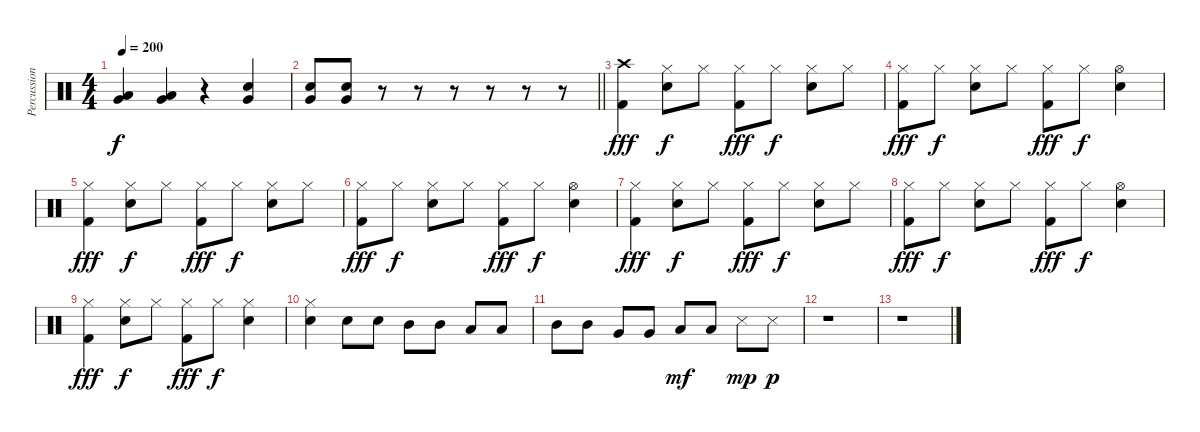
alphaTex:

\track ("Percussion" "Percussion") {instrument percussion}
\staff {score}
\articulation defaults
\ts (4 4)
\tempo 200
\clef neutral
\ks c
("Very Low Tom (hit)" "Low Tom (hit)").4{dy f} ("Very Low Tom (hit)" "Low Tom (hit)").4 r.4 ("Very Low Tom (hit)" "Electric Snare (hit)").4 |
\barLineRight lightlight
("Very Low Tom (hit)" "Electric Snare (hit)").8 ("Very Low Tom (hit)" "Electric Snare (hit)").8 r.8 r.8 r.8 r.8 r.8 r.8 |
("Crash high (hit)" "Kick (hit) 2").4{dy fff} ("Hi-Hat (closed)" "Electric Snare (hit)").8{dy f} "Hi-Hat (closed)".8 ("Hi-Hat (closed)" "Kick (hit) 2").8{dy fff} "Hi-Hat (closed)".8{dy f} ("Hi-Hat (closed)" "Electric Snare (hit)").8 "Hi-Hat (closed)".8 |
("Hi-Hat (closed)" "Kick (hit) 2").8{dy fff} "Hi-Hat (closed)".8{dy f} ("Hi-Hat (closed)" "Electric Snare (hit)").8 "Hi-Hat (closed)".8 ("Hi-Hat (closed)" "Kick (hit) 2").8{dy fff} "Hi-Hat (closed)".8{dy f} ("Hi-Hat (open)" "Electric Snare (hit)").4 |
("Hi-Hat (closed)" "Kick (hit) 2").4{dy fff} ("Hi-Hat (closed)" "Electric Snare (hit)").8{dy f} "Hi-Hat (closed)".8 ("Hi-Hat (closed)" "Kick (hit) 2").8{dy fff} "Hi-Hat (closed)".8{dy f} ("Hi-Hat (closed)" "Electric Snare (hit)").8 "Hi-Hat (closed)".8 |
("Hi-Hat (closed)" "Kick (hit) 2").8{dy fff} "Hi-Hat (closed)".8{dy f} ("Hi-Hat (closed)" "Electric Snare (hit)").8 "Hi-Hat (closed)".8 ("Hi-Hat (closed)" "Kick (hit) 2").8{dy fff} "Hi-Hat (closed)".8{dy f} ("Hi-Hat (open)" "Electric Snare (hit)").4 |
("Hi-Hat (closed)" "Kick (hit) 2").4{dy fff} ("Hi-Hat (closed)" "Electric Snare (hit)").8{dy f} "Hi-Hat (closed)".8 ("Hi-Hat (closed)" "Kick (hit) 2").8{dy fff} "Hi-Hat (closed)".8{dy f} ("Hi-Hat (closed)" "Electric Snare (hit)").8 "Hi-Hat (closed)".8 |
("Hi-Hat (closed)" "Kick (hit) 2").8{dy fff} "Hi-Hat (closed)".8{dy f} ("Hi-Hat (closed)" "Electric Snare (hit)").8 "Hi-Hat (closed)".8 ("Hi-Hat (closed)" "Kick (hit) 2").8{dy fff} "Hi-Hat (closed)".8{dy f} ("Hi-Hat (open)" "Electric Snare (hit)").4 |
("Hi-Hat (closed)" "Kick (hit) 2").4{dy fff} ("Hi-Hat (closed)" "Electric Snare (hit)").8{dy f} "Hi-Hat (closed)".8 ("Hi-Hat (closed)" "Kick (hit) 2").8{dy fff} "Hi-Hat (closed)".8{dy f} ("Hi-Hat (closed)" "Electric Snare (hit)").4 |
("Hi-Hat (closed)" "Electric Snare (hit)").4 "Electric Snare (hit)".8 "Electric Snare (hit)".8 "Mid Tom (hit)".8 "Mid Tom (hit)".8 "Low Tom (hit)".8 "Low Tom (hit)".8 |
"Mid Tom (hit)".8 "Mid Tom (hit)".8 "Very Low Tom (hit)".8 "Very Low Tom (hit)".8 "Low Floor Tom (hit)".8{dy mf} "Low Floor Tom (hit)".8 "Snare (side stick) 3".8{dy mp} "Snare (side stick) 3".8{dy p} |
r.1 |
r.1
